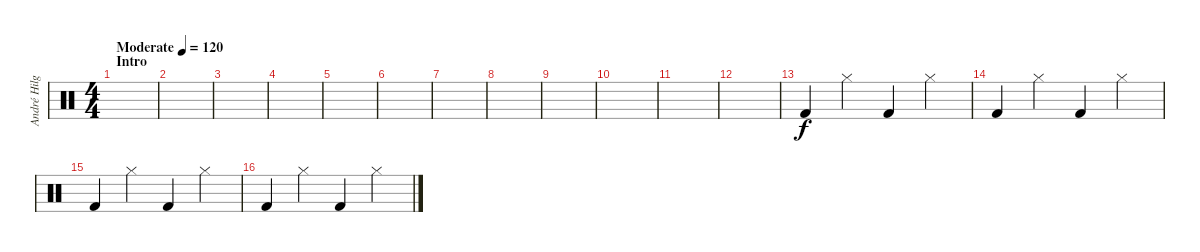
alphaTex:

\track ("André Hilgers" "André Hilg") {instrument percussion}
\staff {score}
\articulation defaults
\ts (4 4)
\section ("" "Intro")
\tempo (120 "Moderate")
\clef neutral
\ks c
|
|
|
|
|
|
|
|
|
|
|
|
"Kick (hit) 2".4 "Hi-Hat (closed)".4 "Kick (hit) 2".4 "Hi-Hat (closed)".4 |
"Kick (hit) 2".4 "Hi-Hat (closed)".4 "Kick (hit) 2".4 "Hi-Hat (closed)".4 |
"Kick (hit) 2".4 "Hi-Hat (closed)".4 "Kick (hit) 2".4 "Hi-Hat (closed)".4 |
"Kick (hit) 2".4 "Hi-Hat (closed)".4 "Kick (hit) 2".4 "Hi-Hat (closed)".4
